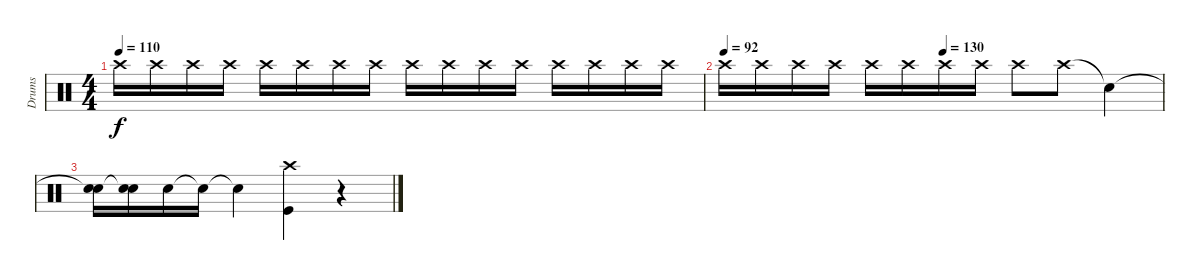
\track ("Drums" "Drums") {instrument percussion}
\staff {score}
\articulation defaults
\ts (4 4)
\tempo 110
\clef neutral
\ks c "Crash high (hit)".16{dy f} "Crash high (hit)".16 "Crash high (hit)".16 "Crash high (hit)".16 "Crash high (hit)".16 "Crash high (hit)".16 "Crash high (hit)".16 "Crash high (hit)".16 "Crash high (hit)".16 "Crash high (hit)".16 "Crash high (hit)".16 "Crash high (hit)".16 "Crash high (hit)".16 "Crash high (hit)".16 "Crash high (hit)".16 "Crash high (hit)".16
|
\tempo 92
\tempo (130 0.5)
"Crash high (hit)".16{volume 14} "Crash high (hit)".16 "Crash high (hit)".16 "Crash high (hit)".16 "Crash high (hit)".16 "Crash high (hit)".16 "Crash high (hit)".16 "Crash high (hit)".16 "Crash high (hit)".8 "Crash high (hit)".8 "Snare (hit)"{t}.4 |
("Snare (hit)"{t} "Snare (hit) 2").16 ("Snare (hit)"{t} "Snare (hit) 2").16 "Snare (hit) 2".16 "Snare (hit)"{t}.16 "Snare (hit)"{t}.4 ("Crash high (hit)" "Kick (hit)").4 r.4
